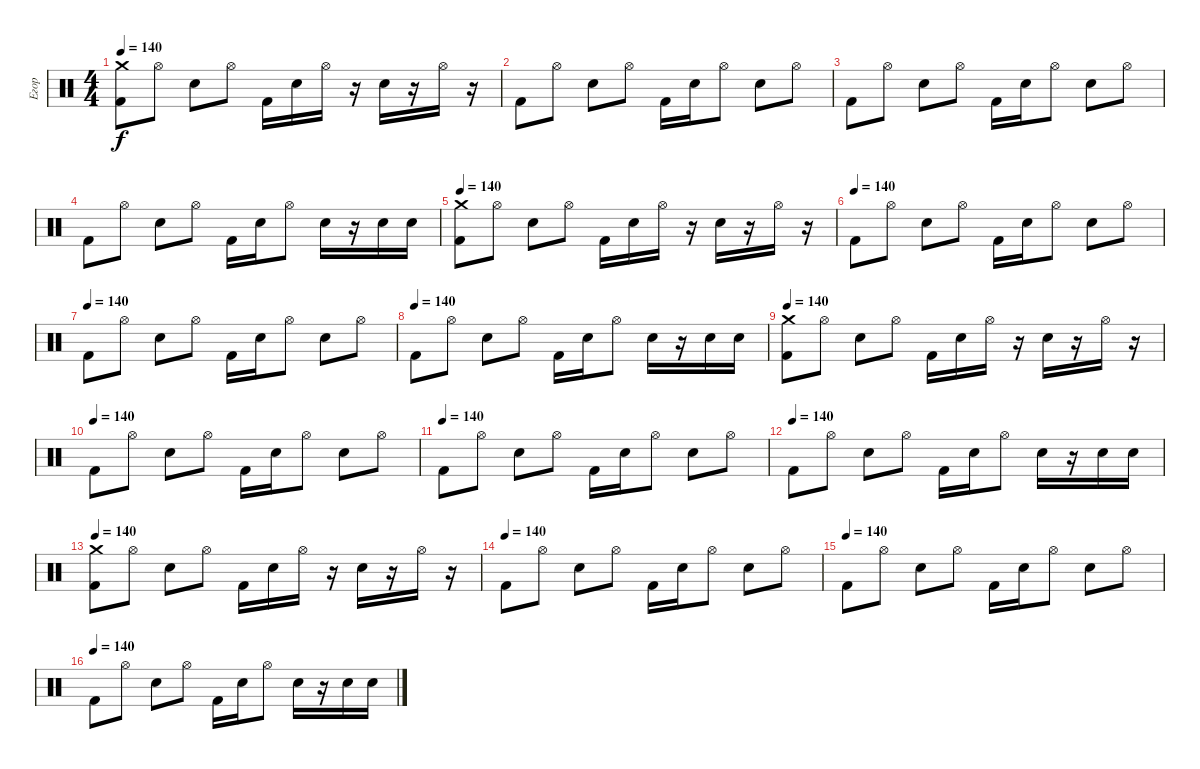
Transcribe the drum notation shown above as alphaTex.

\track ("Егор" "Егор") {instrument percussion}
\staff {score}
\articulation defaults
\ts (4 4)
\tempo 140
\clef neutral
\ks c
("Crash medium (hit)" "Kick (hit) 2").8{dy f} "Hi-Hat (open)".8 "Snare (hit) 2".8 "Hi-Hat (open)".8 "Kick (hit) 2".16 "Snare (hit) 2".16 "Hi-Hat (open)".16 r.16 "Snare (hit) 2".16 r.16 "Hi-Hat (open)".16 r.16 |
"Kick (hit) 2".8 "Hi-Hat (open)".8 "Snare (hit) 2".8 "Hi-Hat (open)".8 "Kick (hit) 2".16 "Snare (hit) 2".16 "Hi-Hat (open)".8 "Snare (hit) 2".8 "Hi-Hat (open)".8 |
"Kick (hit) 2".8 "Hi-Hat (open)".8 "Snare (hit) 2".8 "Hi-Hat (open)".8 "Kick (hit) 2".16 "Snare (hit) 2".16 "Hi-Hat (open)".8 "Snare (hit) 2".8 "Hi-Hat (open)".8 |
"Kick (hit) 2".8 "Hi-Hat (open)".8 "Snare (hit) 2".8 "Hi-Hat (open)".8 "Kick (hit) 2".16 "Snare (hit) 2".16 "Hi-Hat (open)".8 "Snare (hit) 2".16 r.16 "Snare (hit) 2".16 "Snare (hit) 2".16 |
\tempo 140
("Crash medium (hit)" "Kick (hit) 2").8 "Hi-Hat (open)".8 "Snare (hit) 2".8 "Hi-Hat (open)".8 "Kick (hit) 2".16 "Snare (hit) 2".16 "Hi-Hat (open)".16 r.16 "Snare (hit) 2".16 r.16 "Hi-Hat (open)".16 r.16 |
\tempo (140)
"Kick (hit) 2".8 "Hi-Hat (open)".8 "Snare (hit) 2".8 "Hi-Hat (open)".8 "Kick (hit) 2".16 "Snare (hit) 2".16 "Hi-Hat (open)".8 "Snare (hit) 2".8 "Hi-Hat (open)".8 |
\tempo (140)
"Kick (hit) 2".8 "Hi-Hat (open)".8 "Snare (hit) 2".8 "Hi-Hat (open)".8 "Kick (hit) 2".16 "Snare (hit) 2".16 "Hi-Hat (open)".8 "Snare (hit) 2".8 "Hi-Hat (open)".8 |
\tempo (140)
"Kick (hit) 2".8 "Hi-Hat (open)".8 "Snare (hit) 2".8 "Hi-Hat (open)".8 "Kick (hit) 2".16 "Snare (hit) 2".16 "Hi-Hat (open)".8 "Snare (hit) 2".16 r.16 "Snare (hit) 2".16 "Snare (hit) 2".16 |
\tempo 140
("Crash medium (hit)" "Kick (hit) 2").8 "Hi-Hat (open)".8 "Snare (hit) 2".8 "Hi-Hat (open)".8 "Kick (hit) 2".16 "Snare (hit) 2".16 "Hi-Hat (open)".16 r.16 "Snare (hit) 2".16 r.16 "Hi-Hat (open)".16 r.16 |
\tempo (140)
"Kick (hit) 2".8 "Hi-Hat (open)".8 "Snare (hit) 2".8 "Hi-Hat (open)".8 "Kick (hit) 2".16 "Snare (hit) 2".16 "Hi-Hat (open)".8 "Snare (hit) 2".8 "Hi-Hat (open)".8 |
\tempo (140)
"Kick (hit) 2".8 "Hi-Hat (open)".8 "Snare (hit) 2".8 "Hi-Hat (open)".8 "Kick (hit) 2".16 "Snare (hit) 2".16 "Hi-Hat (open)".8 "Snare (hit) 2".8 "Hi-Hat (open)".8 |
\tempo (140)
"Kick (hit) 2".8 "Hi-Hat (open)".8 "Snare (hit) 2".8 "Hi-Hat (open)".8 "Kick (hit) 2".16 "Snare (hit) 2".16 "Hi-Hat (open)".8 "Snare (hit) 2".16 r.16 "Snare (hit) 2".16 "Snare (hit) 2".16 |
\tempo 140
("Crash medium (hit)" "Kick (hit) 2").8 "Hi-Hat (open)".8 "Snare (hit) 2".8 "Hi-Hat (open)".8 "Kick (hit) 2".16 "Snare (hit) 2".16 "Hi-Hat (open)".16 r.16 "Snare (hit) 2".16 r.16 "Hi-Hat (open)".16 r.16 |
\tempo (140)
"Kick (hit) 2".8 "Hi-Hat (open)".8 "Snare (hit) 2".8 "Hi-Hat (open)".8 "Kick (hit) 2".16 "Snare (hit) 2".16 "Hi-Hat (open)".8 "Snare (hit) 2".8 "Hi-Hat (open)".8 |
\tempo (140)
"Kick (hit) 2".8 "Hi-Hat (open)".8 "Snare (hit) 2".8 "Hi-Hat (open)".8 "Kick (hit) 2".16 "Snare (hit) 2".16 "Hi-Hat (open)".8 "Snare (hit) 2".8 "Hi-Hat (open)".8 |
\tempo (140)
"Kick (hit) 2".8 "Hi-Hat (open)".8 "Snare (hit) 2".8 "Hi-Hat (open)".8 "Kick (hit) 2".16 "Snare (hit) 2".16 "Hi-Hat (open)".8 "Snare (hit) 2".16 r.16 "Snare (hit) 2".16 "Snare (hit) 2".16
